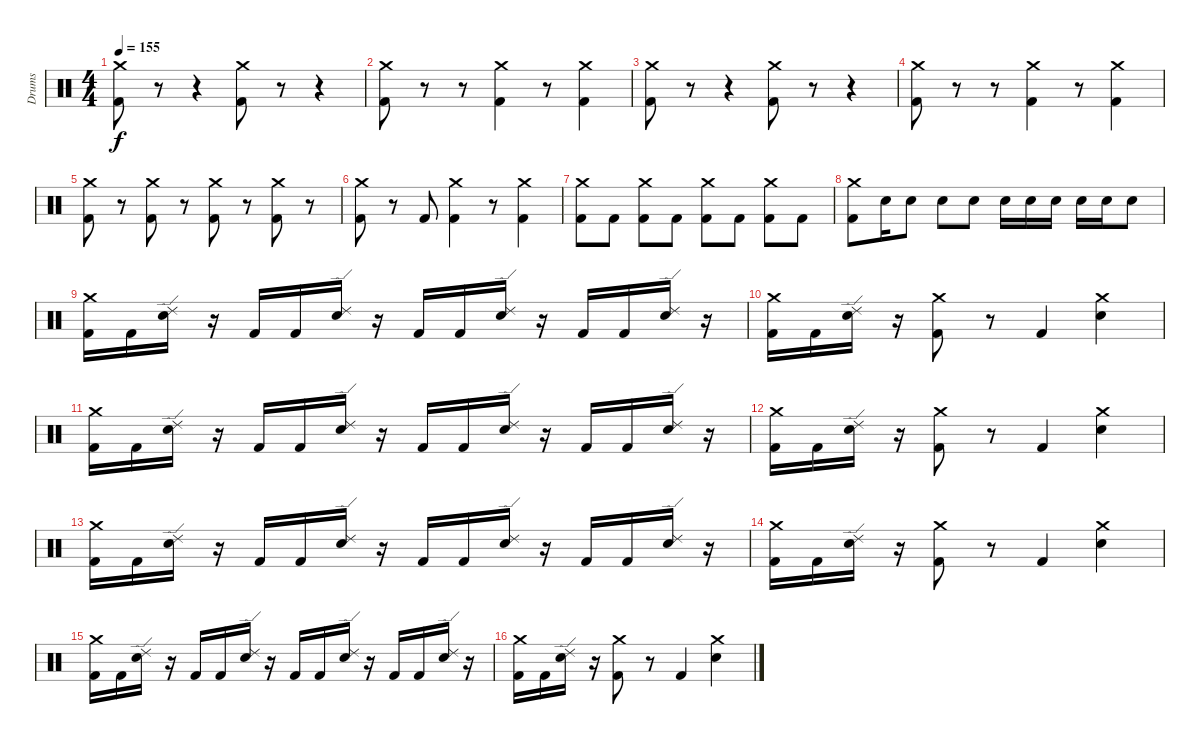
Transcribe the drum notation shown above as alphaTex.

\track ("Drums" "Drums") {instrument percussion}
\staff {score}
\articulation defaults
\ts (4 4)
\tempo 155
\clef neutral
\ks c
("Crash medium (hit)" "Kick (hit) 2").8{dy f} r.8 r.4 ("Crash medium (hit)" "Kick (hit) 2").8 r.8 r.4 |
("Crash medium (hit)" "Kick (hit) 2").8 r.8 r.8 ("Crash medium (hit)" "Kick (hit) 2").4 r.8 ("Crash medium (hit)" "Kick (hit) 2").4 |
("Crash medium (hit)" "Kick (hit) 2").8 r.8 r.4 ("Crash medium (hit)" "Kick (hit) 2").8 r.8 r.4 |
("Crash medium (hit)" "Kick (hit) 2").8 r.8 r.8 ("Crash medium (hit)" "Kick (hit) 2").4 r.8 ("Crash medium (hit)" "Kick (hit) 2").4 |
("Crash medium (hit)" "Kick (hit) 2").8 r.8 ("Crash medium (hit)" "Kick (hit) 2").8 r.8 ("Crash medium (hit)" "Kick (hit) 2").8 r.8 ("Crash medium (hit)" "Kick (hit) 2").8 r.8 |
("Crash medium (hit)" "Kick (hit) 2").8 r.8 "Kick (hit) 2".8 ("Crash medium (hit)" "Kick (hit) 2").4 r.8 ("Crash medium (hit)" "Kick (hit) 2").4 |
("Crash medium (hit)" "Kick (hit) 2").8 "Kick (hit) 2".8 ("Crash medium (hit)" "Kick (hit) 2").8 "Kick (hit) 2".8 ("Crash medium (hit)" "Kick (hit) 2").8 "Kick (hit) 2".8 ("Crash medium (hit)" "Kick (hit) 2").8 "Kick (hit) 2".8 |
("Crash medium (hit)" "Kick (hit) 2").8 "Snare (hit) 2".16 "Snare (hit) 2".8 "Snare (hit) 2".8 "Snare (hit) 2".8 "Snare (hit) 2".16 "Snare (hit) 2".16 "Snare (hit) 2".16 "Snare (hit) 2".16 "Snare (hit) 2".16 "Snare (hit) 2".8 |
("Crash medium (hit)" "Kick (hit) 2").16 "Kick (hit) 2".16 ("Ride (edge) 2" "Snare (hit) 2").16 r.16 "Kick (hit) 2".16 "Kick (hit) 2".16 ("Ride (edge) 2" "Snare (hit) 2").16 r.16 "Kick (hit) 2".16 "Kick (hit) 2".16 ("Ride (edge) 2" "Snare (hit) 2").16 r.16 "Kick (hit) 2".16 "Kick (hit) 2".16 ("Ride (edge) 2" "Snare (hit) 2").16 r.16 |
("Crash medium (hit)" "Kick (hit) 2").16 "Kick (hit) 2".16 ("Ride (edge) 2" "Snare (hit) 2").16 r.16 ("Crash medium (hit)" "Kick (hit) 2").8 r.8 "Kick (hit) 2".4 ("Crash medium (hit)" "Snare (hit) 2").4 |
("Crash medium (hit)" "Kick (hit) 2").16 "Kick (hit) 2".16 ("Ride (edge) 2" "Snare (hit) 2").16 r.16 "Kick (hit) 2".16 "Kick (hit) 2".16 ("Ride (edge) 2" "Snare (hit) 2").16 r.16 "Kick (hit) 2".16 "Kick (hit) 2".16 ("Ride (edge) 2" "Snare (hit) 2").16 r.16 "Kick (hit) 2".16 "Kick (hit) 2".16 ("Ride (edge) 2" "Snare (hit) 2").16 r.16 |
("Crash medium (hit)" "Kick (hit) 2").16 "Kick (hit) 2".16 ("Ride (edge) 2" "Snare (hit) 2").16 r.16 ("Crash medium (hit)" "Kick (hit) 2").8 r.8 "Kick (hit) 2".4 ("Crash medium (hit)" "Snare (hit) 2").4 |
("Crash medium (hit)" "Kick (hit) 2").16 "Kick (hit) 2".16 ("Ride (edge) 2" "Snare (hit) 2").16 r.16 "Kick (hit) 2".16 "Kick (hit) 2".16 ("Ride (edge) 2" "Snare (hit) 2").16 r.16 "Kick (hit) 2".16 "Kick (hit) 2".16 ("Ride (edge) 2" "Snare (hit) 2").16 r.16 "Kick (hit) 2".16 "Kick (hit) 2".16 ("Ride (edge) 2" "Snare (hit) 2").16 r.16 |
("Crash medium (hit)" "Kick (hit) 2").16 "Kick (hit) 2".16 ("Ride (edge) 2" "Snare (hit) 2").16 r.16 ("Crash medium (hit)" "Kick (hit) 2").8 r.8 "Kick (hit) 2".4 ("Crash medium (hit)" "Snare (hit) 2").4 |
("Crash medium (hit)" "Kick (hit) 2").16 "Kick (hit) 2".16 ("Ride (edge) 2" "Snare (hit) 2").16 r.16 "Kick (hit) 2".16 "Kick (hit) 2".16 ("Ride (edge) 2" "Snare (hit) 2").16 r.16 "Kick (hit) 2".16 "Kick (hit) 2".16 ("Ride (edge) 2" "Snare (hit) 2").16 r.16 "Kick (hit) 2".16 "Kick (hit) 2".16 ("Ride (edge) 2" "Snare (hit) 2").16 r.16 |
("Crash medium (hit)" "Kick (hit) 2").16 "Kick (hit) 2".16 ("Ride (edge) 2" "Snare (hit) 2").16 r.16 ("Crash medium (hit)" "Kick (hit) 2").8 r.8 "Kick (hit) 2".4 ("Crash medium (hit)" "Snare (hit) 2").4
